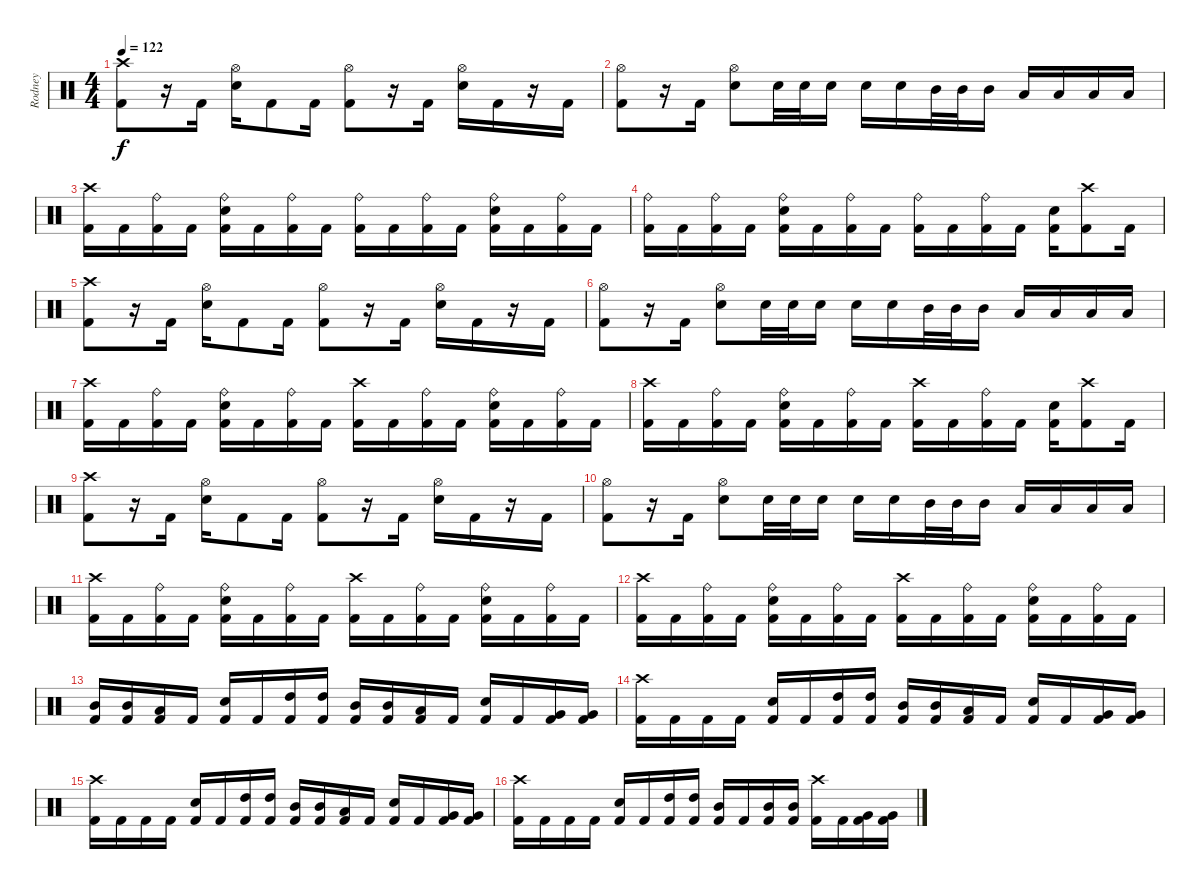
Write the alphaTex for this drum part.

\track ("Rodney" "Rodney") {instrument percussion}
\staff {score}
\articulation defaults
\ts (4 4)
\tempo 122
\clef neutral
\ks c
("Crash high (hit)" "Kick (hit) 2").8{dy f} r.16 "Kick (hit) 2".16 ("Hi-Hat (open)" "Snare (hit) 2").16 "Kick (hit) 2".8 "Kick (hit) 2".16 ("Hi-Hat (open)" "Kick (hit) 2").8 r.16 "Kick (hit) 2".16 ("Hi-Hat (open)" "Snare (hit) 2").16 "Kick (hit) 2".16 r.16 "Kick (hit) 2".16 |
("Hi-Hat (open)" "Kick (hit) 2").8 r.16 "Kick (hit) 2".16 ("Hi-Hat (open)" "Snare (hit) 2").8 "Snare (hit) 2".32 "Snare (hit) 2".32 "Snare (hit) 2".16 "Snare (hit) 2".16 "Snare (hit) 2".16 "Mid Tom (hit)".32 "Mid Tom (hit)".32 "Mid Tom (hit)".16 "Low Tom (hit)".16 "Low Tom (hit)".16 "Low Tom (hit)".16 "Low Tom (hit)".16 |
("Crash high (hit)" "Kick (hit) 2").16 "Kick (hit) 2".16 ("Ride (bell)" "Kick (hit) 2").16 "Kick (hit) 2".16 ("Ride (bell)" "Snare (hit) 2" "Kick (hit) 2").16 "Kick (hit) 2".16 ("Ride (bell)" "Kick (hit) 2").16 "Kick (hit) 2".16 ("Ride (bell)" "Kick (hit) 2").16 "Kick (hit) 2".16 ("Ride (bell)" "Kick (hit) 2").16 "Kick (hit) 2".16 ("Ride (bell)" "Snare (hit) 2" "Kick (hit) 2").16 "Kick (hit) 2".16 ("Ride (bell)" "Kick (hit) 2").16 "Kick (hit) 2".16 |
("Ride (bell)" "Kick (hit) 2").16 "Kick (hit) 2".16 ("Ride (bell)" "Kick (hit) 2").16 "Kick (hit) 2".16 ("Ride (bell)" "Snare (hit) 2" "Kick (hit) 2").16 "Kick (hit) 2".16 ("Ride (bell)" "Kick (hit) 2").16 "Kick (hit) 2".16 ("Ride (bell)" "Kick (hit) 2").16 "Kick (hit) 2".16 ("Ride (bell)" "Kick (hit) 2").16 "Kick (hit) 2".16 ("Snare (hit) 2" "Kick (hit) 2").16 ("Crash high (hit)" "Kick (hit) 2").8 "Kick (hit) 2".16 |
("Crash high (hit)" "Kick (hit) 2").8 r.16 "Kick (hit) 2".16 ("Hi-Hat (open)" "Snare (hit) 2").16 "Kick (hit) 2".8 "Kick (hit) 2".16 ("Hi-Hat (open)" "Kick (hit) 2").8 r.16 "Kick (hit) 2".16 ("Hi-Hat (open)" "Snare (hit) 2").16 "Kick (hit) 2".16 r.16 "Kick (hit) 2".16 |
("Hi-Hat (open)" "Kick (hit) 2").8 r.16 "Kick (hit) 2".16 ("Hi-Hat (open)" "Snare (hit) 2").8 "Snare (hit) 2".32 "Snare (hit) 2".32 "Snare (hit) 2".16 "Snare (hit) 2".16 "Snare (hit) 2".16 "Mid Tom (hit)".32 "Mid Tom (hit)".32 "Mid Tom (hit)".16 "Low Tom (hit)".16 "Low Tom (hit)".16 "Low Tom (hit)".16 "Low Tom (hit)".16 |
("Crash high (hit)" "Kick (hit) 2").16 "Kick (hit) 2".16 ("Ride (bell)" "Kick (hit) 2").16 "Kick (hit) 2".16 ("Ride (bell)" "Snare (hit) 2" "Kick (hit) 2").16 "Kick (hit) 2".16 ("Ride (bell)" "Kick (hit) 2").16 "Kick (hit) 2".16 ("Crash high (hit)" "Kick (hit) 2").16 "Kick (hit) 2".16 ("Ride (bell)" "Kick (hit) 2").16 "Kick (hit) 2".16 ("Ride (bell)" "Snare (hit) 2" "Kick (hit) 2").16 "Kick (hit) 2".16 ("Ride (bell)" "Kick (hit) 2").16 "Kick (hit) 2".16 |
("Crash high (hit)" "Kick (hit) 2").16 "Kick (hit) 2".16 ("Ride (bell)" "Kick (hit) 2").16 "Kick (hit) 2".16 ("Ride (bell)" "Snare (hit) 2" "Kick (hit) 2").16 "Kick (hit) 2".16 ("Ride (bell)" "Kick (hit) 2").16 "Kick (hit) 2".16 ("Crash high (hit)" "Kick (hit) 2").16 "Kick (hit) 2".16 ("Ride (bell)" "Kick (hit) 2").16 "Kick (hit) 2".16 ("Snare (hit) 2" "Kick (hit) 2").16 ("Crash high (hit)" "Kick (hit) 2").8 "Kick (hit) 2".16 |
("Crash high (hit)" "Kick (hit) 2").8 r.16 "Kick (hit) 2".16 ("Hi-Hat (open)" "Snare (hit) 2").16 "Kick (hit) 2".8 "Kick (hit) 2".16 ("Hi-Hat (open)" "Kick (hit) 2").8 r.16 "Kick (hit) 2".16 ("Hi-Hat (open)" "Snare (hit) 2").16 "Kick (hit) 2".16 r.16 "Kick (hit) 2".16 |
("Hi-Hat (open)" "Kick (hit) 2").8 r.16 "Kick (hit) 2".16 ("Hi-Hat (open)" "Snare (hit) 2").8 "Snare (hit) 2".32 "Snare (hit) 2".32 "Snare (hit) 2".16 "Snare (hit) 2".16 "Snare (hit) 2".16 "Mid Tom (hit)".32 "Mid Tom (hit)".32 "Mid Tom (hit)".16 "Low Tom (hit)".16 "Low Tom (hit)".16 "Low Tom (hit)".16 "Low Tom (hit)".16 |
("Crash high (hit)" "Kick (hit) 2").16 "Kick (hit) 2".16 ("Ride (bell)" "Kick (hit) 2").16 "Kick (hit) 2".16 ("Ride (bell)" "Snare (hit) 2" "Kick (hit) 2").16 "Kick (hit) 2".16 ("Ride (bell)" "Kick (hit) 2").16 "Kick (hit) 2".16 ("Crash high (hit)" "Kick (hit) 2").16 "Kick (hit) 2".16 ("Ride (bell)" "Kick (hit) 2").16 "Kick (hit) 2".16 ("Ride (bell)" "Snare (hit) 2" "Kick (hit) 2").16 "Kick (hit) 2".16 ("Ride (bell)" "Kick (hit) 2").16 "Kick (hit) 2".16 |
("Crash high (hit)" "Kick (hit) 2").16 "Kick (hit) 2".16 ("Ride (bell)" "Kick (hit) 2").16 "Kick (hit) 2".16 ("Ride (bell)" "Snare (hit) 2" "Kick (hit) 2").16 "Kick (hit) 2".16 ("Ride (bell)" "Kick (hit) 2").16 "Kick (hit) 2".16 ("Crash high (hit)" "Kick (hit) 2").16 "Kick (hit) 2".16 ("Ride (bell)" "Kick (hit) 2").16 "Kick (hit) 2".16 ("Ride (bell)" "Snare (hit) 2" "Kick (hit) 2").16 "Kick (hit) 2".16 ("Ride (bell)" "Kick (hit) 2").16 "Kick (hit) 2".16 |
("Mid Tom (hit)" "Kick (hit) 2").16 ("Mid Tom (hit)" "Kick (hit) 2").16 ("Low Tom (hit)" "Kick (hit) 2").16 "Kick (hit) 2".16 ("Snare (hit) 2" "Kick (hit) 2").16 "Kick (hit) 2".16 ("High Tom (hit)" "Kick (hit) 2").16 ("High Tom (hit)" "Kick (hit) 2").16 ("Mid Tom (hit)" "Kick (hit) 2").16 ("Mid Tom (hit)" "Kick (hit) 2").16 ("Low Tom (hit)" "Kick (hit) 2").16 "Kick (hit) 2".16 ("Snare (hit) 2" "Kick (hit) 2").16 "Kick (hit) 2".16 ("Very Low Tom (hit)" "Kick (hit) 2").16 ("Very Low Tom (hit)" "Kick (hit) 2").16 |
("Crash high (hit)" "Kick (hit) 2").16 "Kick (hit) 2".16 "Kick (hit) 2".16 "Kick (hit) 2".16 ("Snare (hit) 2" "Kick (hit) 2").16 "Kick (hit) 2".16 ("High Tom (hit)" "Kick (hit) 2").16 ("High Tom (hit)" "Kick (hit) 2").16 ("Mid Tom (hit)" "Kick (hit) 2").16 ("Mid Tom (hit)" "Kick (hit) 2").16 ("Low Tom (hit)" "Kick (hit) 2").16 "Kick (hit) 2".16 ("Snare (hit) 2" "Kick (hit) 2").16 "Kick (hit) 2".16 ("Very Low Tom (hit)" "Kick (hit) 2").16 ("Very Low Tom (hit)" "Kick (hit) 2").16 |
("Crash high (hit)" "Kick (hit) 2").16 "Kick (hit) 2".16 "Kick (hit) 2".16 "Kick (hit) 2".16 ("Snare (hit) 2" "Kick (hit) 2").16 "Kick (hit) 2".16 ("High Tom (hit)" "Kick (hit) 2").16 ("High Tom (hit)" "Kick (hit) 2").16 ("Mid Tom (hit)" "Kick (hit) 2").16 ("Mid Tom (hit)" "Kick (hit) 2").16 ("Low Tom (hit)" "Kick (hit) 2").16 "Kick (hit) 2".16 ("Snare (hit) 2" "Kick (hit) 2").16 "Kick (hit) 2".16 ("Very Low Tom (hit)" "Kick (hit) 2").16 ("Very Low Tom (hit)" "Kick (hit) 2").16 |
("Crash high (hit)" "Kick (hit) 2").16 "Kick (hit) 2".16 "Kick (hit) 2".16 "Kick (hit) 2".16 ("Snare (hit) 2" "Kick (hit) 2").16 "Kick (hit) 2".16 ("High Tom (hit)" "Kick (hit) 2").16 ("High Tom (hit)" "Kick (hit) 2").16 ("Mid Tom (hit)" "Kick (hit) 2").16 "Kick (hit) 2".16 ("Mid Tom (hit)" "Kick (hit) 2").16 ("Mid Tom (hit)" "Kick (hit) 2").16 ("Crash high (hit)" "Kick (hit) 2").16 "Kick (hit) 2".16 ("Very Low Tom (hit)" "Kick (hit) 2").16 ("Very Low Tom (hit)" "Kick (hit) 2").16
